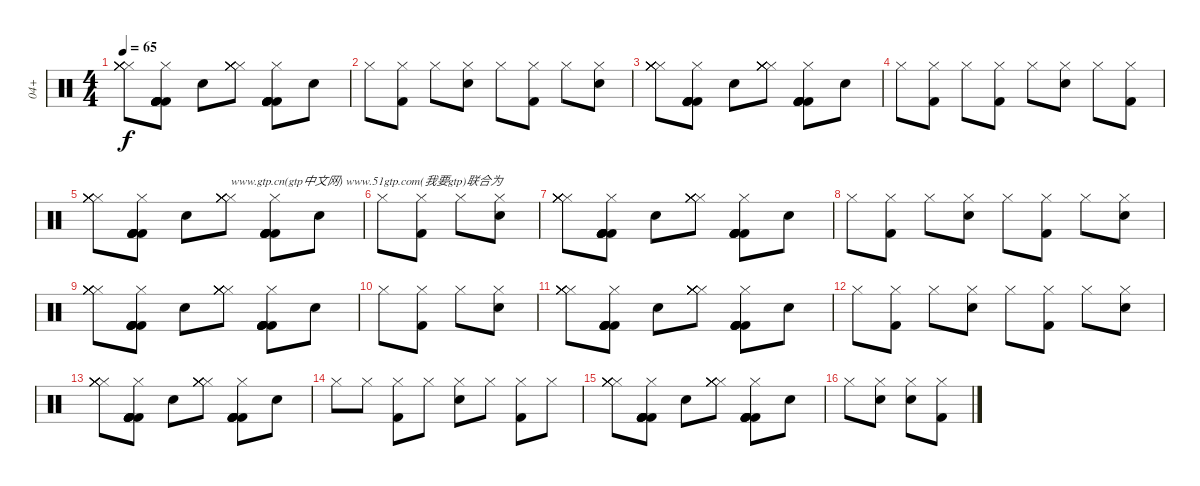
\track ("04+" "04+") {instrument percussion}
\staff {score}
\articulation defaults
\ts (4 4)
\tempo 65
\clef neutral
\ks c
("Hi-Hat (closed)" "Hi-Hat (closed)" "Hi-Hat (closed)" "Hi-Hat (closed)" "Hi-Hat (closed)" "Hi-Hat (closed)").8{dy f} ("Hi-Hat (closed)" "Kick (hit) 2" "Kick (hit) 2" "Kick (hit) 2" "Kick (hit) 2" "Kick (hit) 2").8 "Hand Clap (hit)".8 ("Hi-Hat (closed)" "Hi-Hat (closed)" "Hi-Hat (closed)" "Hi-Hat (closed)" "Hi-Hat (closed)" "Hi-Hat (closed)").8 ("Hi-Hat (closed)" "Kick (hit) 2" "Kick (hit) 2" "Kick (hit) 2" "Kick (hit) 2" "Kick (hit) 2").8 "Hand Clap (hit)".8 |
"Hi-Hat (closed)".8 ("Hi-Hat (closed)" "Kick (hit) 2").8 "Hi-Hat (closed)".8 ("Hi-Hat (closed)" "Electric Snare (hit)").8 "Hi-Hat (closed)".8 ("Hi-Hat (closed)" "Kick (hit) 2").8 "Hi-Hat (closed)".8 ("Hi-Hat (closed)" "Hand Clap (hit)").8 |
("Hi-Hat (closed)" "Hi-Hat (closed)" "Hi-Hat (closed)" "Hi-Hat (closed)" "Hi-Hat (closed)" "Hi-Hat (closed)").8 ("Hi-Hat (closed)" "Kick (hit) 2" "Kick (hit) 2" "Kick (hit) 2" "Kick (hit) 2" "Kick (hit) 2").8 "Hand Clap (hit)".8 ("Hi-Hat (closed)" "Hi-Hat (closed)" "Hi-Hat (closed)" "Hi-Hat (closed)" "Hi-Hat (closed)" "Hi-Hat (closed)").8 ("Hi-Hat (closed)" "Kick (hit) 2" "Kick (hit) 2" "Kick (hit) 2" "Kick (hit) 2" "Kick (hit) 2").8 "Hand Clap (hit)".8 |
"Hi-Hat (closed)".8 ("Hi-Hat (closed)" "Kick (hit) 2").8 "Hi-Hat (closed)".8 ("Hi-Hat (closed)" "Kick (hit) 2").8 "Hi-Hat (closed)".8 ("Hi-Hat (closed)" "Electric Snare (hit)").8 "Hi-Hat (closed)".8 ("Hi-Hat (closed)" "Kick (hit) 2").8 |
("Hi-Hat (closed)" "Hi-Hat (closed)" "Hi-Hat (closed)" "Hi-Hat (closed)" "Hi-Hat (closed)" "Hi-Hat (closed)").8 ("Hi-Hat (closed)" "Kick (hit) 2" "Kick (hit) 2" "Kick (hit) 2" "Kick (hit) 2" "Kick (hit) 2").8 "Hand Clap (hit)".8 ("Hi-Hat (closed)" "Hi-Hat (closed)" "Hi-Hat (closed)" "Hi-Hat (closed)" "Hi-Hat (closed)" "Hi-Hat (closed)").8{txt "www.gtp.cn(gtp中文网) www.51gtp.com(我要gtp)联合为"} ("Hi-Hat (closed)" "Kick (hit) 2" "Kick (hit) 2" "Kick (hit) 2" "Kick (hit) 2" "Kick (hit) 2").8 "Hand Clap (hit)".8 |
"Hi-Hat (closed)".8 ("Hi-Hat (closed)" "Kick (hit) 2").8 "Hi-Hat (closed)".8 ("Hi-Hat (closed)" "Electric Snare (hit)").8 |
("Hi-Hat (closed)" "Hi-Hat (closed)" "Hi-Hat (closed)" "Hi-Hat (closed)" "Hi-Hat (closed)" "Hi-Hat (closed)").8 ("Hi-Hat (closed)" "Kick (hit) 2" "Kick (hit) 2" "Kick (hit) 2" "Kick (hit) 2" "Kick (hit) 2").8 "Hand Clap (hit)".8 ("Hi-Hat (closed)" "Hi-Hat (closed)" "Hi-Hat (closed)" "Hi-Hat (closed)" "Hi-Hat (closed)" "Hi-Hat (closed)").8 ("Hi-Hat (closed)" "Kick (hit) 2" "Kick (hit) 2" "Kick (hit) 2" "Kick (hit) 2" "Kick (hit) 2").8 "Hand Clap (hit)".8 |
"Hi-Hat (closed)".8 ("Hi-Hat (closed)" "Kick (hit) 2").8 "Hi-Hat (closed)".8 ("Hi-Hat (closed)" "Electric Snare (hit)").8 "Hi-Hat (closed)".8 ("Hi-Hat (closed)" "Kick (hit) 2").8 "Hi-Hat (closed)".8 ("Hi-Hat (closed)" "Electric Snare (hit)").8 |
("Hi-Hat (closed)" "Hi-Hat (closed)" "Hi-Hat (closed)" "Hi-Hat (closed)" "Hi-Hat (closed)" "Hi-Hat (closed)").8 ("Hi-Hat (closed)" "Kick (hit) 2" "Kick (hit) 2" "Kick (hit) 2" "Kick (hit) 2" "Kick (hit) 2").8 "Hand Clap (hit)".8 ("Hi-Hat (closed)" "Hi-Hat (closed)" "Hi-Hat (closed)" "Hi-Hat (closed)" "Hi-Hat (closed)" "Hi-Hat (closed)").8 ("Hi-Hat (closed)" "Kick (hit) 2" "Kick (hit) 2" "Kick (hit) 2" "Kick (hit) 2" "Kick (hit) 2").8 "Hand Clap (hit)".8 |
"Hi-Hat (closed)".8 ("Hi-Hat (closed)" "Kick (hit) 2").8 "Hi-Hat (closed)".8 ("Hi-Hat (closed)" "Electric Snare (hit)").8 |
("Hi-Hat (closed)" "Hi-Hat (closed)" "Hi-Hat (closed)" "Hi-Hat (closed)" "Hi-Hat (closed)" "Hi-Hat (closed)").8 ("Hi-Hat (closed)" "Kick (hit) 2" "Kick (hit) 2" "Kick (hit) 2" "Kick (hit) 2" "Kick (hit) 2").8 "Hand Clap (hit)".8 ("Hi-Hat (closed)" "Hi-Hat (closed)" "Hi-Hat (closed)" "Hi-Hat (closed)" "Hi-Hat (closed)" "Hi-Hat (closed)").8 ("Hi-Hat (closed)" "Kick (hit) 2" "Kick (hit) 2" "Kick (hit) 2" "Kick (hit) 2" "Kick (hit) 2").8 "Hand Clap (hit)".8 |
"Hi-Hat (closed)".8 ("Hi-Hat (closed)" "Kick (hit) 2").8 "Hi-Hat (closed)".8 ("Hi-Hat (closed)" "Electric Snare (hit)").8 "Hi-Hat (closed)".8 ("Hi-Hat (closed)" "Kick (hit) 2").8 "Hi-Hat (closed)".8 ("Hi-Hat (closed)" "Electric Snare (hit)").8 |
("Hi-Hat (closed)" "Hi-Hat (closed)" "Hi-Hat (closed)" "Hi-Hat (closed)" "Hi-Hat (closed)" "Hi-Hat (closed)").8 ("Hi-Hat (closed)" "Kick (hit) 2" "Kick (hit) 2" "Kick (hit) 2" "Kick (hit) 2" "Kick (hit) 2").8 "Hand Clap (hit)".8 ("Hi-Hat (closed)" "Hi-Hat (closed)" "Hi-Hat (closed)" "Hi-Hat (closed)" "Hi-Hat (closed)" "Hi-Hat (closed)").8 ("Hi-Hat (closed)" "Kick (hit) 2" "Kick (hit) 2" "Kick (hit) 2" "Kick (hit) 2" "Kick (hit) 2").8 "Hand Clap (hit)".8 |
"Hi-Hat (closed)".8 "Hi-Hat (closed)".8 ("Hi-Hat (closed)" "Kick (hit) 2").8 "Hi-Hat (closed)".8 ("Hi-Hat (closed)" "Electric Snare (hit)").8 "Hi-Hat (closed)".8 ("Hi-Hat (closed)" "Kick (hit) 2").8 "Hi-Hat (closed)".8 |
("Hi-Hat (closed)" "Hi-Hat (closed)" "Hi-Hat (closed)" "Hi-Hat (closed)" "Hi-Hat (closed)" "Hi-Hat (closed)").8 ("Hi-Hat (closed)" "Kick (hit) 2" "Kick (hit) 2" "Kick (hit) 2" "Kick (hit) 2" "Kick (hit) 2").8 "Hand Clap (hit)".8 ("Hi-Hat (closed)" "Hi-Hat (closed)" "Hi-Hat (closed)" "Hi-Hat (closed)" "Hi-Hat (closed)" "Hi-Hat (closed)").8 ("Hi-Hat (closed)" "Kick (hit) 2" "Kick (hit) 2" "Kick (hit) 2" "Kick (hit) 2" "Kick (hit) 2").8 "Hand Clap (hit)".8 |
"Hi-Hat (closed)".8 ("Hi-Hat (closed)" "Electric Snare (hit)").8 ("Hi-Hat (closed)" "Hand Clap (hit)").8 ("Hi-Hat (closed)" "Kick (hit) 2").8
